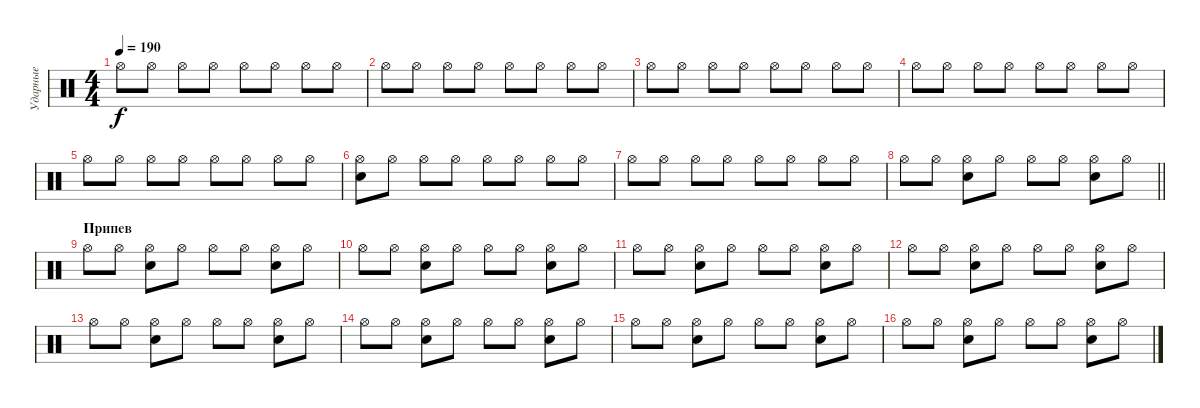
\track ("Ударные" "Ударные") {instrument percussion}
\staff {score}
\articulation defaults
\ts (4 4)
\tempo 190
\clef neutral
\ks c "Hi-Hat (open)".8{dy f} "Hi-Hat (open)".8 "Hi-Hat (open)".8 "Hi-Hat (open)".8 "Hi-Hat (open)".8 "Hi-Hat (open)".8 "Hi-Hat (open)".8 "Hi-Hat (open)".8
|
"Hi-Hat (open)".8 "Hi-Hat (open)".8 "Hi-Hat (open)".8 "Hi-Hat (open)".8 "Hi-Hat (open)".8 "Hi-Hat (open)".8 "Hi-Hat (open)".8 "Hi-Hat (open)".8 |
"Hi-Hat (open)".8 "Hi-Hat (open)".8 "Hi-Hat (open)".8 "Hi-Hat (open)".8 "Hi-Hat (open)".8 "Hi-Hat (open)".8 "Hi-Hat (open)".8 "Hi-Hat (open)".8 |
"Hi-Hat (open)".8 "Hi-Hat (open)".8 "Hi-Hat (open)".8 "Hi-Hat (open)".8 "Hi-Hat (open)".8 "Hi-Hat (open)".8 "Hi-Hat (open)".8 "Hi-Hat (open)".8 |
"Hi-Hat (open)".8 "Hi-Hat (open)".8 "Hi-Hat (open)".8 "Hi-Hat (open)".8 "Hi-Hat (open)".8 "Hi-Hat (open)".8 "Hi-Hat (open)".8 "Hi-Hat (open)".8 |
("Electric Snare (hit)" "Hi-Hat (open)").8 "Hi-Hat (open)".8 "Hi-Hat (open)".8 "Hi-Hat (open)".8 "Hi-Hat (open)".8 "Hi-Hat (open)".8 "Hi-Hat (open)".8 "Hi-Hat (open)".8 |
"Hi-Hat (open)".8 "Hi-Hat (open)".8 "Hi-Hat (open)".8 "Hi-Hat (open)".8 "Hi-Hat (open)".8 "Hi-Hat (open)".8 "Hi-Hat (open)".8 "Hi-Hat (open)".8 |
\barLineRight lightlight "Hi-Hat (open)".8 "Hi-Hat (open)".8
("Hi-Hat (open)" "Electric Snare (hit)").8 "Hi-Hat (open)".8 "Hi-Hat (open)".8 "Hi-Hat (open)".8 ("Hi-Hat (open)" "Electric Snare (hit)").8 "Hi-Hat (open)".8 |
\section ("" "Припев")
"Hi-Hat (open)".8 "Hi-Hat (open)".8 ("Hi-Hat (open)" "Electric Snare (hit)").8 "Hi-Hat (open)".8 "Hi-Hat (open)".8 "Hi-Hat (open)".8 ("Hi-Hat (open)" "Electric Snare (hit)").8 "Hi-Hat (open)".8 |
"Hi-Hat (open)".8 "Hi-Hat (open)".8 ("Hi-Hat (open)" "Electric Snare (hit)").8 "Hi-Hat (open)".8 "Hi-Hat (open)".8 "Hi-Hat (open)".8 ("Hi-Hat (open)" "Electric Snare (hit)").8 "Hi-Hat (open)".8 |
"Hi-Hat (open)".8 "Hi-Hat (open)".8 ("Hi-Hat (open)" "Electric Snare (hit)").8 "Hi-Hat (open)".8 "Hi-Hat (open)".8 "Hi-Hat (open)".8 ("Hi-Hat (open)" "Electric Snare (hit)").8 "Hi-Hat (open)".8 |
"Hi-Hat (open)".8 "Hi-Hat (open)".8 ("Hi-Hat (open)" "Electric Snare (hit)").8 "Hi-Hat (open)".8 "Hi-Hat (open)".8 "Hi-Hat (open)".8 ("Hi-Hat (open)" "Electric Snare (hit)").8 "Hi-Hat (open)".8 |
"Hi-Hat (open)".8 "Hi-Hat (open)".8 ("Hi-Hat (open)" "Electric Snare (hit)").8 "Hi-Hat (open)".8 "Hi-Hat (open)".8 "Hi-Hat (open)".8 ("Hi-Hat (open)" "Electric Snare (hit)").8 "Hi-Hat (open)".8 |
"Hi-Hat (open)".8 "Hi-Hat (open)".8 ("Hi-Hat (open)" "Electric Snare (hit)").8 "Hi-Hat (open)".8 "Hi-Hat (open)".8 "Hi-Hat (open)".8 ("Hi-Hat (open)" "Electric Snare (hit)").8 "Hi-Hat (open)".8 |
"Hi-Hat (open)".8 "Hi-Hat (open)".8 ("Hi-Hat (open)" "Electric Snare (hit)").8 "Hi-Hat (open)".8 "Hi-Hat (open)".8 "Hi-Hat (open)".8 ("Hi-Hat (open)" "Electric Snare (hit)").8 "Hi-Hat (open)".8 |
"Hi-Hat (open)".8 "Hi-Hat (open)".8 ("Hi-Hat (open)" "Electric Snare (hit)").8 "Hi-Hat (open)".8 "Hi-Hat (open)".8 "Hi-Hat (open)".8 ("Hi-Hat (open)" "Electric Snare (hit)").8 "Hi-Hat (open)".8
